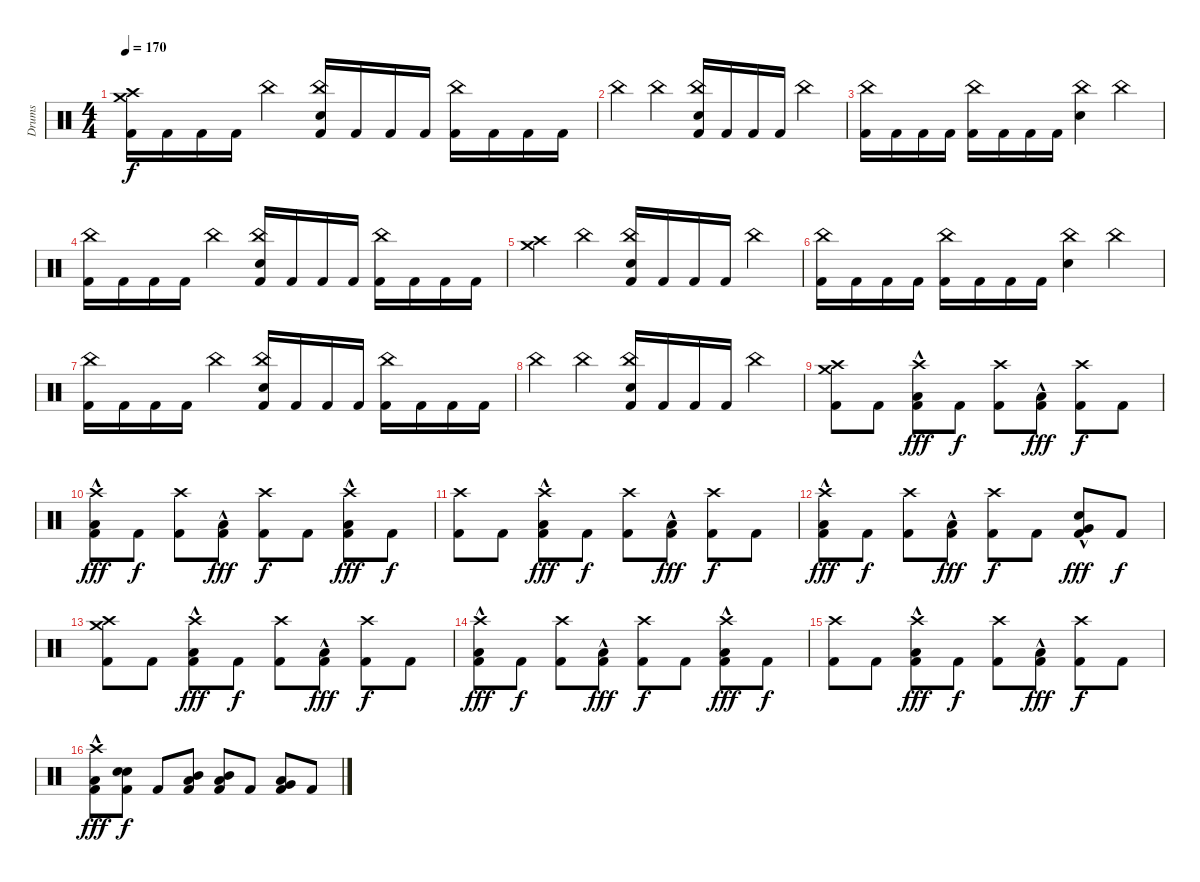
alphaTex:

\track ("Drums" "Drums") {instrument percussion}
\staff {score}
\articulation defaults
\ts (4 4)
\tempo 170
\clef neutral
\ks c
("Crash high (hit)" "Crash medium (hit)" "Kick (hit) 2").16{dy f} "Kick (hit) 2".16 "Kick (hit) 2".16 "Kick (hit) 2".16 "China (hit)".4 ("China (hit)" "Electric Snare (hit)" "Kick (hit) 2").16 "Kick (hit) 2".16 "Kick (hit) 2".16 "Kick (hit) 2".16 ("China (hit)" "Kick (hit) 2").16 "Kick (hit) 2".16 "Kick (hit) 2".16 "Kick (hit) 2".16 |
"China (hit)".4 "China (hit)".4 ("China (hit)" "Electric Snare (hit)" "Kick (hit) 2").16 "Kick (hit) 2".16 "Kick (hit) 2".16 "Kick (hit) 2".16 "China (hit)".4 |
("China (hit)" "Kick (hit) 2").16 "Kick (hit) 2".16 "Kick (hit) 2".16 "Kick (hit) 2".16 ("China (hit)" "Kick (hit) 2").16 "Kick (hit) 2".16 "Kick (hit) 2".16 "Kick (hit) 2".16 ("China (hit)" "Electric Snare (hit)").4 "China (hit)".4 |
("China (hit)" "Kick (hit) 2").16 "Kick (hit) 2".16 "Kick (hit) 2".16 "Kick (hit) 2".16 "China (hit)".4 ("China (hit)" "Electric Snare (hit)" "Kick (hit) 2").16 "Kick (hit) 2".16 "Kick (hit) 2".16 "Kick (hit) 2".16 ("China (hit)" "Kick (hit) 2").16 "Kick (hit) 2".16 "Kick (hit) 2".16 "Kick (hit) 2".16 |
("Crash high (hit)" "Crash medium (hit)").4 "China (hit)".4 ("China (hit)" "Electric Snare (hit)" "Kick (hit) 2").16 "Kick (hit) 2".16 "Kick (hit) 2".16 "Kick (hit) 2".16 "China (hit)".4 |
("China (hit)" "Kick (hit) 2").16 "Kick (hit) 2".16 "Kick (hit) 2".16 "Kick (hit) 2".16 ("China (hit)" "Kick (hit) 2").16 "Kick (hit) 2".16 "Kick (hit) 2".16 "Kick (hit) 2".16 ("China (hit)" "Electric Snare (hit)").4 "China (hit)".4 |
("China (hit)" "Kick (hit) 2").16 "Kick (hit) 2".16 "Kick (hit) 2".16 "Kick (hit) 2".16 "China (hit)".4 ("China (hit)" "Electric Snare (hit)" "Kick (hit) 2").16 "Kick (hit) 2".16 "Kick (hit) 2".16 "Kick (hit) 2".16 ("China (hit)" "Kick (hit) 2").16 "Kick (hit) 2".16 "Kick (hit) 2".16 "Kick (hit) 2".16 |
"China (hit)".4 "China (hit)".4 ("China (hit)" "Electric Snare (hit)" "Kick (hit) 2").16 "Kick (hit) 2".16 "Kick (hit) 2".16 "Kick (hit) 2".16 "China (hit)".4 |
("Crash high (hit)" "Crash medium (hit)" "Kick (hit) 2").8 "Kick (hit) 2".8 ("Crash high (hit)" "Low Tom (hit)"{hac} "Kick (hit) 2").8{dy fff} "Kick (hit) 2".8{dy f} ("Crash high (hit)" "Kick (hit) 2").8 ("Low Tom (hit)"{hac} "Kick (hit) 2").8{dy fff} ("Crash high (hit)" "Kick (hit) 2").8{dy f} "Kick (hit) 2".8 |
("Crash high (hit)" "Low Tom (hit)"{hac} "Kick (hit) 2").8{dy fff} "Kick (hit) 2".8{dy f} ("Crash high (hit)" "Kick (hit) 2").8 ("Low Tom (hit)"{hac} "Kick (hit) 2").8{dy fff} ("Crash high (hit)" "Kick (hit) 2").8{dy f} "Kick (hit) 2".8 ("Crash high (hit)" "Low Tom (hit)"{hac} "Kick (hit) 2").8{dy fff} "Kick (hit) 2".8{dy f} |
("Crash high (hit)" "Kick (hit) 2").8 "Kick (hit) 2".8 ("Crash high (hit)" "Low Tom (hit)"{hac} "Kick (hit) 2").8{dy fff} "Kick (hit) 2".8{dy f} ("Crash high (hit)" "Kick (hit) 2").8 ("Low Tom (hit)"{hac} "Kick (hit) 2").8{dy fff} ("Crash high (hit)" "Kick (hit) 2").8{dy f} "Kick (hit) 2".8 |
("Crash high (hit)" "Low Tom (hit)"{hac} "Kick (hit) 2").8{dy fff} "Kick (hit) 2".8{dy f} ("Crash high (hit)" "Kick (hit) 2").8 ("Low Tom (hit)"{hac} "Kick (hit) 2").8{dy fff} ("Crash high (hit)" "Kick (hit) 2").8{dy f} "Kick (hit) 2".8 ("Very Low Tom (hit)"{hac} "Electric Snare (hit)"{hac} "Kick (hit) 2").8{dy fff} "Kick (hit) 2".8{dy f} |
("Crash high (hit)" "Crash medium (hit)" "Kick (hit) 2").8 "Kick (hit) 2".8 ("Crash high (hit)" "Low Tom (hit)"{hac} "Kick (hit) 2").8{dy fff} "Kick (hit) 2".8{dy f} ("Crash high (hit)" "Kick (hit) 2").8 ("Low Tom (hit)"{hac} "Kick (hit) 2").8{dy fff} ("Crash high (hit)" "Kick (hit) 2").8{dy f} "Kick (hit) 2".8 |
("Crash high (hit)" "Low Tom (hit)"{hac} "Kick (hit) 2").8{dy fff} "Kick (hit) 2".8{dy f} ("Crash high (hit)" "Kick (hit) 2").8 ("Low Tom (hit)"{hac} "Kick (hit) 2").8{dy fff} ("Crash high (hit)" "Kick (hit) 2").8{dy f} "Kick (hit) 2".8 ("Crash high (hit)" "Low Tom (hit)"{hac} "Kick (hit) 2").8{dy fff} "Kick (hit) 2".8{dy f} |
("Crash high (hit)" "Kick (hit) 2").8 "Kick (hit) 2".8 ("Crash high (hit)" "Low Tom (hit)"{hac} "Kick (hit) 2").8{dy fff} "Kick (hit) 2".8{dy f} ("Crash high (hit)" "Kick (hit) 2").8 ("Low Tom (hit)"{hac} "Kick (hit) 2").8{dy fff} ("Crash high (hit)" "Kick (hit) 2").8{dy f} "Kick (hit) 2".8 |
("Crash high (hit)" "Low Tom (hit)"{hac} "Kick (hit) 2").8{dy fff} ("Electric Snare (hit)" "Electric Snare (hit)" "Kick (hit) 2").8{dy f} "Kick (hit) 2".8 ("Mid Tom (hit)" "Low Floor Tom (hit)" "Kick (hit) 2").8 ("Mid Tom (hit)" "Low Floor Tom (hit)" "Kick (hit) 2").8 "Kick (hit) 2".8 ("Very Low Tom (hit)" "Low Floor Tom (hit)" "Kick (hit) 2").8 "Kick (hit) 2".8
